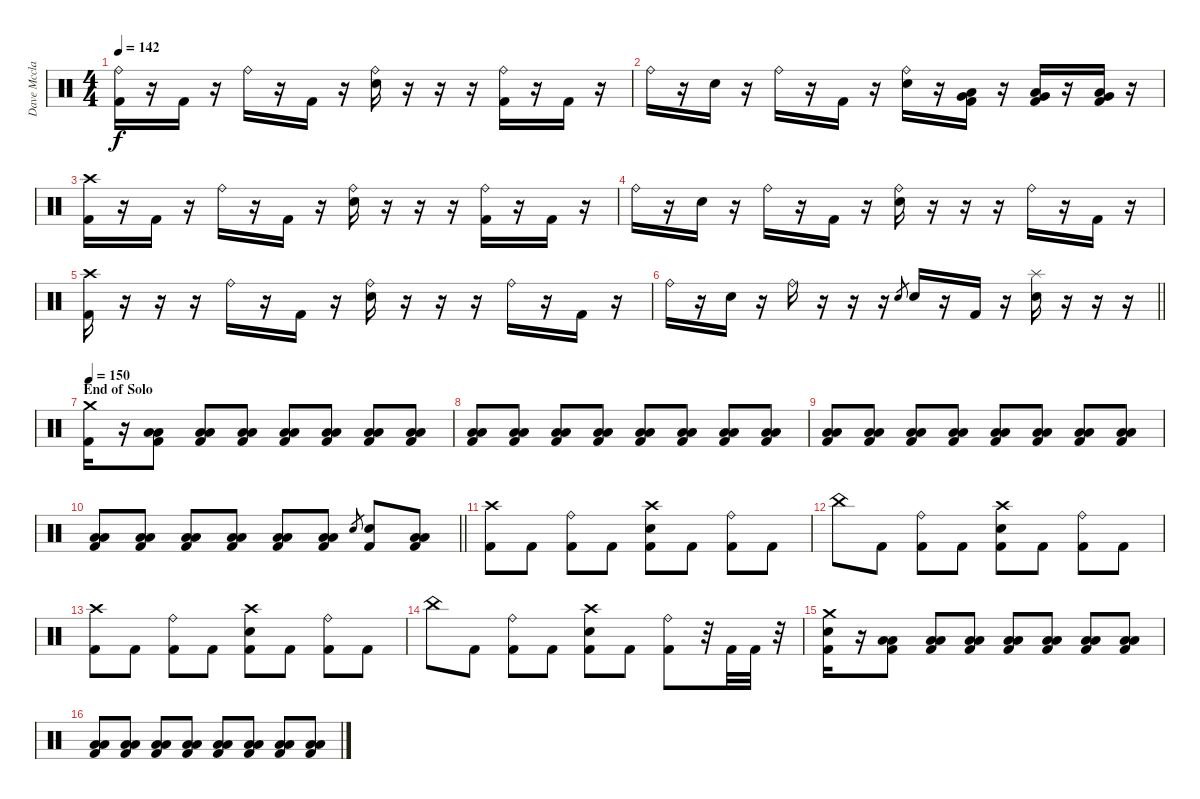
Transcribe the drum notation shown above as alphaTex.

\track ("Dave Mcclain" "Dave Mccla") {instrument percussion}
\staff {score}
\articulation defaults
\ts (4 4)
\tempo 142
\clef neutral
\ks c
("Ride (bell)" "Kick (hit) 2").16{dy f} r.16 "Kick (hit) 2".16 r.16 "Ride (bell)".16 r.16 "Kick (hit) 2".16 r.16 ("Ride (bell)" "Electric Snare (hit)").16 r.16 r.16 r.16 ("Ride (bell)" "Kick (hit) 2").16 r.16 "Kick (hit) 2".16 r.16 |
"Ride (bell)".16 r.16 "Electric Snare (hit)".16 r.16 "Ride (bell)".16 r.16 "Kick (hit) 2".16 r.16 ("Ride (bell)" "Electric Snare (hit)").16 r.16 ("Very Low Tom (hit)" "Low Floor Tom (hit)" "Kick (hit) 2").16 r.16 ("Very Low Tom (hit)" "Low Floor Tom (hit)" "Kick (hit) 2").16 r.16 ("Very Low Tom (hit)" "Low Floor Tom (hit)" "Kick (hit) 2").16 r.16 |
("Crash high (hit)" "Kick (hit) 2").16 r.16 "Kick (hit) 2".16 r.16 "Ride (bell)".16 r.16 "Kick (hit) 2".16 r.16 ("Ride (bell)" "Electric Snare (hit)").16 r.16 r.16 r.16 ("Ride (bell)" "Kick (hit) 2").16 r.16 "Kick (hit) 2".16 r.16 |
"Ride (bell)".16 r.16 "Electric Snare (hit)".16 r.16 "Ride (bell)".16 r.16 "Kick (hit) 2".16 r.16 ("Ride (bell)" "Electric Snare (hit)").16 r.16 r.16 r.16 "Ride (bell)".16 r.16 "Kick (hit) 2".16 r.16 |
("Crash high (hit)" "Kick (hit) 2").16 r.16 r.16 r.16 "Ride (bell)".16 r.16 "Kick (hit) 2".16 r.16 ("Ride (bell)" "Electric Snare (hit)").16 r.16 r.16 r.16 "Ride (bell)".16 r.16 "Kick (hit) 2".16 r.16 |
\barLineRight lightlight "Ride (bell)".16
r.16 "Electric Snare (hit)".16 r.16 "Ride (bell)".16 r.16 r.16 r.16 "Electric Snare (hit)".8{gr} "Electric Snare (hit)".16 r.16 "Kick (hit) 2".16 r.16 ("Splash (hit)" "Electric Snare (hit)").16 r.16 r.16 r.16 |
\section ("" "End of Solo")
\tempo 150
("Crash medium (hit)" "Kick (hit) 2").16 r.16 ("Low Tom (hit)" "Low Floor Tom (hit)" "Kick (hit) 2").8 ("Low Tom (hit)" "Low Floor Tom (hit)" "Kick (hit) 2").8 ("Low Tom (hit)" "Low Floor Tom (hit)" "Kick (hit) 2").8 ("Low Tom (hit)" "Low Floor Tom (hit)" "Kick (hit) 2").8 ("Low Tom (hit)" "Low Floor Tom (hit)" "Kick (hit) 2").8 ("Low Tom (hit)" "Low Floor Tom (hit)" "Kick (hit) 2").8 ("Low Tom (hit)" "Low Floor Tom (hit)" "Kick (hit) 2").8 |
("Low Tom (hit)" "Low Floor Tom (hit)" "Kick (hit) 2").8 ("Low Tom (hit)" "Low Floor Tom (hit)" "Kick (hit) 2").8 ("Low Tom (hit)" "Low Floor Tom (hit)" "Kick (hit) 2").8 ("Low Tom (hit)" "Low Floor Tom (hit)" "Kick (hit) 2").8 ("Low Tom (hit)" "Low Floor Tom (hit)" "Kick (hit) 2").8 ("Low Tom (hit)" "Low Floor Tom (hit)" "Kick (hit) 2").8 ("Low Tom (hit)" "Low Floor Tom (hit)" "Kick (hit) 2").8 ("Low Tom (hit)" "Low Floor Tom (hit)" "Kick (hit) 2").8 |
("Low Tom (hit)" "Low Floor Tom (hit)" "Kick (hit) 2").8 ("Low Tom (hit)" "Low Floor Tom (hit)" "Kick (hit) 2").8 ("Low Tom (hit)" "Low Floor Tom (hit)" "Kick (hit) 2").8 ("Low Tom (hit)" "Low Floor Tom (hit)" "Kick (hit) 2").8 ("Low Tom (hit)" "Low Floor Tom (hit)" "Kick (hit) 2").8 ("Low Tom (hit)" "Low Floor Tom (hit)" "Kick (hit) 2").8 ("Low Tom (hit)" "Low Floor Tom (hit)" "Kick (hit) 2").8 ("Low Tom (hit)" "Low Floor Tom (hit)" "Kick (hit) 2").8 |
\barLineRight lightlight
("Low Tom (hit)" "Low Floor Tom (hit)" "Kick (hit) 2").8 ("Low Tom (hit)" "Low Floor Tom (hit)" "Kick (hit) 2").8 ("Low Tom (hit)" "Low Floor Tom (hit)" "Kick (hit) 2").8 ("Low Tom (hit)" "Low Floor Tom (hit)" "Kick (hit) 2").8 ("Low Tom (hit)" "Low Floor Tom (hit)" "Kick (hit) 2").8 ("Low Tom (hit)" "Low Floor Tom (hit)" "Kick (hit) 2").8 "Electric Snare (hit)".8{gr} ("Electric Snare (hit)" "Kick (hit) 2").8 ("Low Tom (hit)" "Low Floor Tom (hit)" "Kick (hit) 2").8 |
\section ("" "")
("Crash high (hit)" "Kick (hit) 2").8 "Kick (hit) 2".8 ("Ride (bell)" "Kick (hit) 2").8 "Kick (hit) 2".8 ("Crash high (hit)" "Electric Snare (hit)" "Kick (hit) 2").8 "Kick (hit) 2".8 ("Ride (bell)" "Kick (hit) 2").8 "Kick (hit) 2".8 |
"China (hit)".8 "Kick (hit) 2".8 ("Ride (bell)" "Kick (hit) 2").8 "Kick (hit) 2".8 ("Crash high (hit)" "Electric Snare (hit)" "Kick (hit) 2").8 "Kick (hit) 2".8 ("Ride (bell)" "Kick (hit) 2").8 "Kick (hit) 2".8 |
("Crash high (hit)" "Kick (hit) 2").8 "Kick (hit) 2".8 ("Ride (bell)" "Kick (hit) 2").8 "Kick (hit) 2".8 ("Crash high (hit)" "Electric Snare (hit)" "Kick (hit) 2").8 "Kick (hit) 2".8 ("Ride (bell)" "Kick (hit) 2").8 "Kick (hit) 2".8 |
"China (hit)".8 "Kick (hit) 2".8 ("Ride (bell)" "Kick (hit) 2").8 "Kick (hit) 2".8 ("Crash high (hit)" "Electric Snare (hit)" "Kick (hit) 2").8 "Kick (hit) 2".8 ("Ride (bell)" "Kick (hit) 2").8 r.32 "Kick (hit) 2".32 "Kick (hit) 2".32 r.32 |
("Crash medium (hit)" "Electric Snare (hit)" "Kick (hit) 2").16 r.16 ("Low Tom (hit)" "Low Floor Tom (hit)" "Kick (hit) 2").8 ("Low Tom (hit)" "Low Floor Tom (hit)" "Kick (hit) 2").8 ("Low Tom (hit)" "Low Floor Tom (hit)" "Kick (hit) 2").8 ("Low Tom (hit)" "Low Floor Tom (hit)" "Kick (hit) 2").8 ("Low Tom (hit)" "Low Floor Tom (hit)" "Kick (hit) 2").8 ("Low Tom (hit)" "Low Floor Tom (hit)" "Kick (hit) 2").8 ("Low Tom (hit)" "Low Floor Tom (hit)" "Kick (hit) 2").8 |
("Low Tom (hit)" "Low Floor Tom (hit)" "Kick (hit) 2").8 ("Low Tom (hit)" "Low Floor Tom (hit)" "Kick (hit) 2").8 ("Low Tom (hit)" "Low Floor Tom (hit)" "Kick (hit) 2").8 ("Low Tom (hit)" "Low Floor Tom (hit)" "Kick (hit) 2").8 ("Low Tom (hit)" "Low Floor Tom (hit)" "Kick (hit) 2").8 ("Low Tom (hit)" "Low Floor Tom (hit)" "Kick (hit) 2").8 ("Low Tom (hit)" "Low Floor Tom (hit)" "Kick (hit) 2").8 ("Low Tom (hit)" "Low Floor Tom (hit)" "Kick (hit) 2").8
